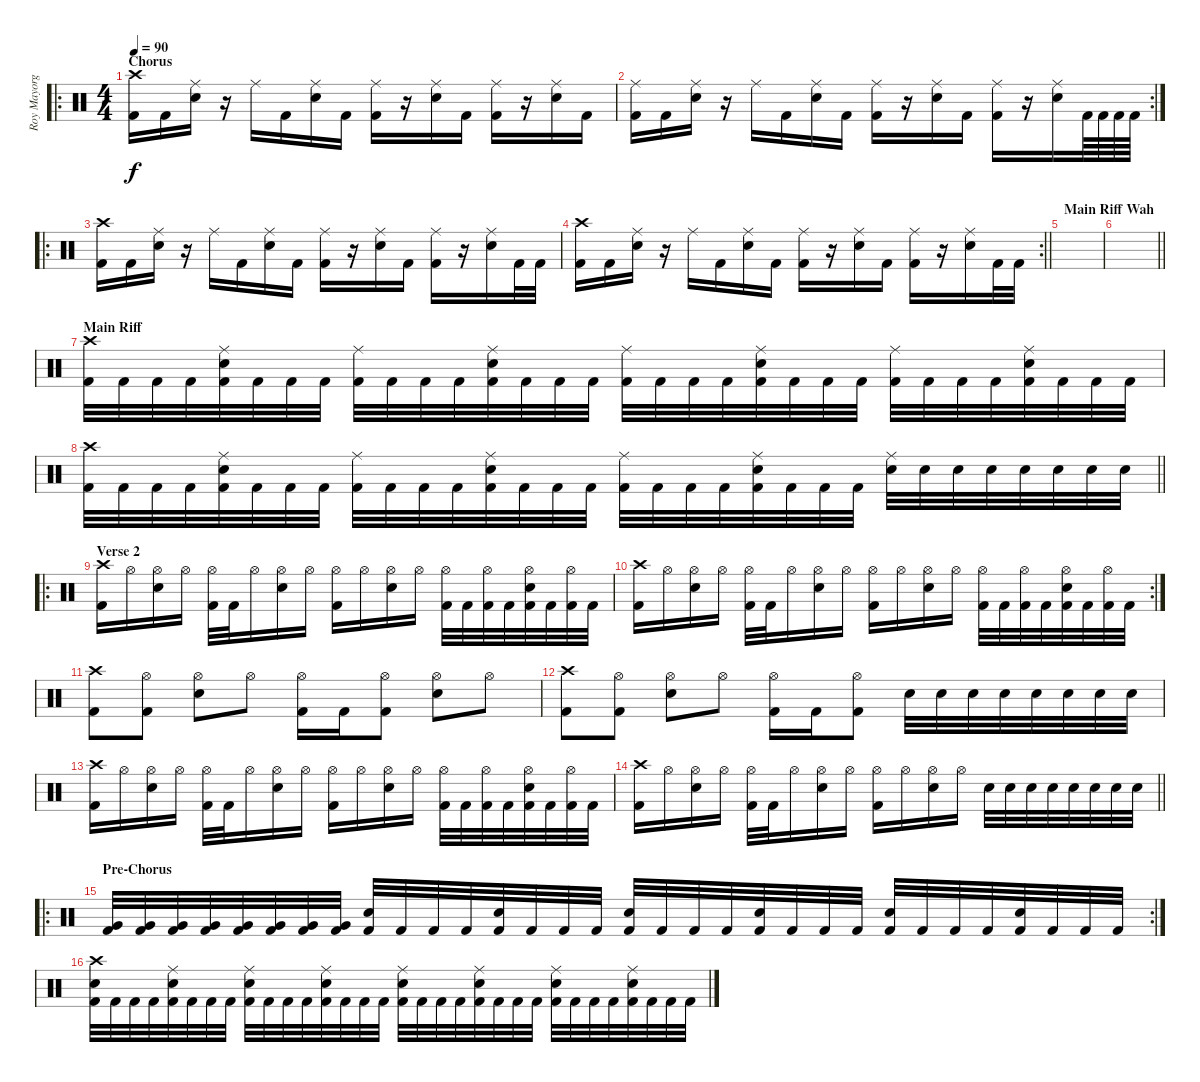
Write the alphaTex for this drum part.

\track ("Roy Mayorga" "Roy Mayorg") {instrument percussion}
\staff {score}
\articulation defaults
\ro
\ts (4 4)
\section ("" "Chorus")
\tempo 90
\clef neutral
\ks c
("Kick (hit) 2" "Crash high (hit)").16{dy f} "Kick (hit) 2".16 ("Electric Snare (hit)" "Ride (middle)").16 r.16 "Ride (middle)".16 "Kick (hit) 2".16 ("Electric Snare (hit)" "Ride (middle)").16 "Kick (hit) 2".16 ("Kick (hit) 2" "Ride (middle)").16 r.16 ("Electric Snare (hit)" "Ride (middle)").16 "Kick (hit) 2".16 ("Kick (hit) 2" "Ride (middle)").16 r.16 ("Electric Snare (hit)" "Ride (middle)").16 "Kick (hit) 2".16 |
\rc 2
("Kick (hit) 2" "Ride (middle)").16 "Kick (hit) 2".16 ("Electric Snare (hit)" "Ride (middle)").16 r.16 "Ride (middle)".16 "Kick (hit) 2".16 ("Electric Snare (hit)" "Ride (middle)").16 "Kick (hit) 2".16 ("Kick (hit) 2" "Ride (middle)").16 r.16 ("Electric Snare (hit)" "Ride (middle)").16 "Kick (hit) 2".16 ("Kick (hit) 2" "Ride (middle)").16 r.16 ("Electric Snare (hit)" "Ride (middle)").16 "Kick (hit) 2".64 "Kick (hit) 2".64 "Kick (hit) 2".64 "Kick (hit) 2".64 |
\ro
("Kick (hit) 2" "Crash high (hit)").16 "Kick (hit) 2".16 ("Electric Snare (hit)" "Ride (middle)").16 r.16 "Ride (middle)".16 "Kick (hit) 2".16 ("Electric Snare (hit)" "Ride (middle)").16 "Kick (hit) 2".16 ("Kick (hit) 2" "Ride (middle)").16 r.16 ("Electric Snare (hit)" "Ride (middle)").16 "Kick (hit) 2".16 ("Kick (hit) 2" "Ride (middle)").16 r.16 ("Electric Snare (hit)" "Ride (middle)").16 "Kick (hit) 2".32 "Kick (hit) 2".32 |
\rc 2
\barLineRight lightlight
("Kick (hit) 2" "Crash high (hit)").16 "Kick (hit) 2".16 ("Electric Snare (hit)" "Ride (middle)").16 r.16 "Ride (middle)".16 "Kick (hit) 2".16 ("Electric Snare (hit)" "Ride (middle)").16 "Kick (hit) 2".16 ("Kick (hit) 2" "Ride (middle)").16 r.16 ("Electric Snare (hit)" "Ride (middle)").16 "Kick (hit) 2".16 ("Kick (hit) 2" "Ride (middle)").16 r.16 ("Electric Snare (hit)" "Ride (middle)").16 "Kick (hit) 2".32 "Kick (hit) 2".32 |
\section ("" "Main Riff Wah")
|
\barLineRight lightlight
|
\section ("" "Main Riff")
("Kick (hit) 2" "Crash high (hit)").32 "Kick (hit) 2".32 "Kick (hit) 2".32 "Kick (hit) 2".32 ("Kick (hit) 2" "Electric Snare (hit)" "Ride (middle)").32 "Kick (hit) 2".32 "Kick (hit) 2".32 "Kick (hit) 2".32 ("Kick (hit) 2" "Ride (middle)").32 "Kick (hit) 2".32 "Kick (hit) 2".32 "Kick (hit) 2".32 ("Kick (hit) 2" "Electric Snare (hit)" "Ride (middle)").32 "Kick (hit) 2".32 "Kick (hit) 2".32 "Kick (hit) 2".32 ("Kick (hit) 2" "Ride (middle)").32 "Kick (hit) 2".32 "Kick (hit) 2".32 "Kick (hit) 2".32 ("Kick (hit) 2" "Electric Snare (hit)" "Ride (middle)").32 "Kick (hit) 2".32 "Kick (hit) 2".32 "Kick (hit) 2".32 ("Kick (hit) 2" "Ride (middle)").32 "Kick (hit) 2".32 "Kick (hit) 2".32 "Kick (hit) 2".32 ("Kick (hit) 2" "Electric Snare (hit)" "Ride (middle)").32 "Kick (hit) 2".32 "Kick (hit) 2".32 "Kick (hit) 2".32 |
\barLineRight lightlight
("Kick (hit) 2" "Crash high (hit)").32 "Kick (hit) 2".32 "Kick (hit) 2".32 "Kick (hit) 2".32 ("Kick (hit) 2" "Electric Snare (hit)" "Ride (middle)").32 "Kick (hit) 2".32 "Kick (hit) 2".32 "Kick (hit) 2".32 ("Kick (hit) 2" "Ride (middle)").32 "Kick (hit) 2".32 "Kick (hit) 2".32 "Kick (hit) 2".32 ("Kick (hit) 2" "Electric Snare (hit)" "Ride (middle)").32 "Kick (hit) 2".32 "Kick (hit) 2".32 "Kick (hit) 2".32 ("Kick (hit) 2" "Ride (middle)").32 "Kick (hit) 2".32 "Kick (hit) 2".32 "Kick (hit) 2".32 ("Kick (hit) 2" "Electric Snare (hit)" "Ride (middle)").32 "Kick (hit) 2".32 "Kick (hit) 2".32 "Kick (hit) 2".32 ("Electric Snare (hit)" "Ride (middle)").32 "Electric Snare (hit)".32 "Electric Snare (hit)".32 "Electric Snare (hit)".32 "Electric Snare (hit)".32 "Electric Snare (hit)".32 "Electric Snare (hit)".32 "Electric Snare (hit)".32 |
\ro
\section ("" "Verse 2")
("Kick (hit) 2" "Crash high (hit)").16 "Hi-Hat (open)".16 ("Electric Snare (hit)" "Hi-Hat (open)").16 "Hi-Hat (open)".16 ("Kick (hit) 2" "Hi-Hat (open)").32 "Kick (hit) 2".32 "Hi-Hat (open)".16 ("Electric Snare (hit)" "Hi-Hat (open)").16 "Hi-Hat (open)".16 ("Kick (hit) 2" "Hi-Hat (open)").16 "Hi-Hat (open)".16 ("Electric Snare (hit)" "Hi-Hat (open)").16 "Hi-Hat (open)".16 ("Kick (hit) 2" "Hi-Hat (open)").32 "Kick (hit) 2".32 ("Kick (hit) 2" "Hi-Hat (open)").32 "Kick (hit) 2".32 ("Kick (hit) 2" "Electric Snare (hit)" "Hi-Hat (open)").32 "Kick (hit) 2".32 ("Kick (hit) 2" "Hi-Hat (open)").32 "Kick (hit) 2".32 |
\rc 2
("Kick (hit) 2" "Crash high (hit)").16 "Hi-Hat (open)".16 ("Electric Snare (hit)" "Hi-Hat (open)").16 "Hi-Hat (open)".16 ("Kick (hit) 2" "Hi-Hat (open)").32 "Kick (hit) 2".32 "Hi-Hat (open)".16 ("Electric Snare (hit)" "Hi-Hat (open)").16 "Hi-Hat (open)".16 ("Kick (hit) 2" "Hi-Hat (open)").16 "Hi-Hat (open)".16 ("Electric Snare (hit)" "Hi-Hat (open)").16 "Hi-Hat (open)".16 ("Kick (hit) 2" "Hi-Hat (open)").32 "Kick (hit) 2".32 ("Kick (hit) 2" "Hi-Hat (open)").32 "Kick (hit) 2".32 ("Kick (hit) 2" "Electric Snare (hit)" "Hi-Hat (open)").32 "Kick (hit) 2".32 ("Kick (hit) 2" "Hi-Hat (open)").32 "Kick (hit) 2".32 |
("Kick (hit) 2" "Crash high (hit)").8 ("Kick (hit) 2" "Hi-Hat (open)").8 ("Electric Snare (hit)" "Hi-Hat (open)").8 "Hi-Hat (open)".8 ("Kick (hit) 2" "Hi-Hat (open)").16 "Kick (hit) 2".16 ("Kick (hit) 2" "Hi-Hat (open)").8 ("Electric Snare (hit)" "Hi-Hat (open)").8 "Hi-Hat (open)".8 |
("Kick (hit) 2" "Crash high (hit)").8 ("Kick (hit) 2" "Hi-Hat (open)").8 ("Electric Snare (hit)" "Hi-Hat (open)").8 "Hi-Hat (open)".8 ("Kick (hit) 2" "Hi-Hat (open)").16 "Kick (hit) 2".16 ("Kick (hit) 2" "Hi-Hat (open)").8 "Electric Snare (hit)".32 "Electric Snare (hit)".32 "Electric Snare (hit)".32 "Electric Snare (hit)".32 "Electric Snare (hit)".32 "Electric Snare (hit)".32 "Electric Snare (hit)".32 "Electric Snare (hit)".32 |
("Kick (hit) 2" "Crash high (hit)").16 "Hi-Hat (open)".16 ("Electric Snare (hit)" "Hi-Hat (open)").16 "Hi-Hat (open)".16 ("Kick (hit) 2" "Hi-Hat (open)").32 "Kick (hit) 2".32 "Hi-Hat (open)".16 ("Electric Snare (hit)" "Hi-Hat (open)").16 "Hi-Hat (open)".16 ("Kick (hit) 2" "Hi-Hat (open)").16 "Hi-Hat (open)".16 ("Electric Snare (hit)" "Hi-Hat (open)").16 "Hi-Hat (open)".16 ("Kick (hit) 2" "Hi-Hat (open)").32 "Kick (hit) 2".32 ("Kick (hit) 2" "Hi-Hat (open)").32 "Kick (hit) 2".32 ("Kick (hit) 2" "Electric Snare (hit)" "Hi-Hat (open)").32 "Kick (hit) 2".32 ("Kick (hit) 2" "Hi-Hat (open)").32 "Kick (hit) 2".32 |
\barLineRight lightlight
("Kick (hit) 2" "Crash high (hit)").16 "Hi-Hat (open)".16 ("Electric Snare (hit)" "Hi-Hat (open)").16 "Hi-Hat (open)".16 ("Kick (hit) 2" "Hi-Hat (open)").32 "Kick (hit) 2".32 "Hi-Hat (open)".16 ("Electric Snare (hit)" "Hi-Hat (open)").16 "Hi-Hat (open)".16 ("Kick (hit) 2" "Hi-Hat (open)").16 "Hi-Hat (open)".16 ("Electric Snare (hit)" "Hi-Hat (open)").16 "Hi-Hat (open)".16 "Electric Snare (hit)".32 "Electric Snare (hit)".32 "Electric Snare (hit)".32 "Electric Snare (hit)".32 "Electric Snare (hit)".32 "Electric Snare (hit)".32 "Electric Snare (hit)".32 "Electric Snare (hit)".32 |
\ro
\rc 2
\section ("" "Pre-Chorus")
("Kick (hit) 2" "Very Low Tom (hit)").32 ("Kick (hit) 2" "Very Low Tom (hit)").32 ("Kick (hit) 2" "Very Low Tom (hit)").32 ("Kick (hit) 2" "Very Low Tom (hit)").32 ("Kick (hit) 2" "Very Low Tom (hit)").32 ("Kick (hit) 2" "Very Low Tom (hit)").32 ("Kick (hit) 2" "Very Low Tom (hit)").32 ("Kick (hit) 2" "Very Low Tom (hit)").32 ("Kick (hit) 2" "Electric Snare (hit)").32 "Kick (hit) 2".32 "Kick (hit) 2".32 "Kick (hit) 2".32 ("Kick (hit) 2" "Electric Snare (hit)").32 "Kick (hit) 2".32 "Kick (hit) 2".32 "Kick (hit) 2".32 ("Kick (hit) 2" "Electric Snare (hit)").32 "Kick (hit) 2".32 "Kick (hit) 2".32 "Kick (hit) 2".32 ("Kick (hit) 2" "Electric Snare (hit)").32 "Kick (hit) 2".32 "Kick (hit) 2".32 "Kick (hit) 2".32 ("Kick (hit) 2" "Electric Snare (hit)").32 "Kick (hit) 2".32 "Kick (hit) 2".32 "Kick (hit) 2".32 ("Kick (hit) 2" "Electric Snare (hit)").32 "Kick (hit) 2".32 "Kick (hit) 2".32 "Kick (hit) 2".32 |
("Kick (hit) 2" "Electric Snare (hit)" "Crash high (hit)").32 "Kick (hit) 2".32 "Kick (hit) 2".32 "Kick (hit) 2".32 ("Kick (hit) 2" "Electric Snare (hit)" "Ride (middle)").32 "Kick (hit) 2".32 "Kick (hit) 2".32 "Kick (hit) 2".32 ("Kick (hit) 2" "Electric Snare (hit)" "Ride (middle)").32 "Kick (hit) 2".32 "Kick (hit) 2".32 "Kick (hit) 2".32 ("Kick (hit) 2" "Electric Snare (hit)" "Ride (middle)").32 "Kick (hit) 2".32 "Kick (hit) 2".32 "Kick (hit) 2".32 ("Kick (hit) 2" "Electric Snare (hit)" "Ride (middle)").32 "Kick (hit) 2".32 "Kick (hit) 2".32 "Kick (hit) 2".32 ("Kick (hit) 2" "Electric Snare (hit)" "Ride (middle)").32 "Kick (hit) 2".32 "Kick (hit) 2".32 "Kick (hit) 2".32 ("Kick (hit) 2" "Electric Snare (hit)" "Ride (middle)").32 "Kick (hit) 2".32 "Kick (hit) 2".32 "Kick (hit) 2".32 ("Kick (hit) 2" "Electric Snare (hit)" "Ride (middle)").32 "Kick (hit) 2".32 "Kick (hit) 2".32 "Kick (hit) 2".32
